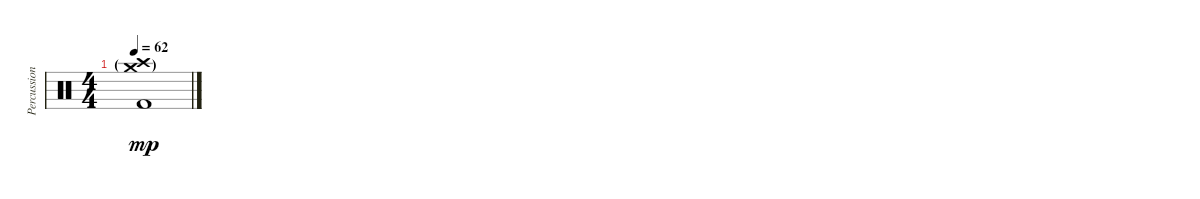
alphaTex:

\track ("Percussion" "Percussion") {instrument percussion}
\staff {score}
\articulation defaults
\ts (4 4)
\tempo 62
\clef neutral
\ks c
("Crash medium (hit)"{g} "Crash high (hit)"{g} "Kick (hit) 2").1{dy mp}
